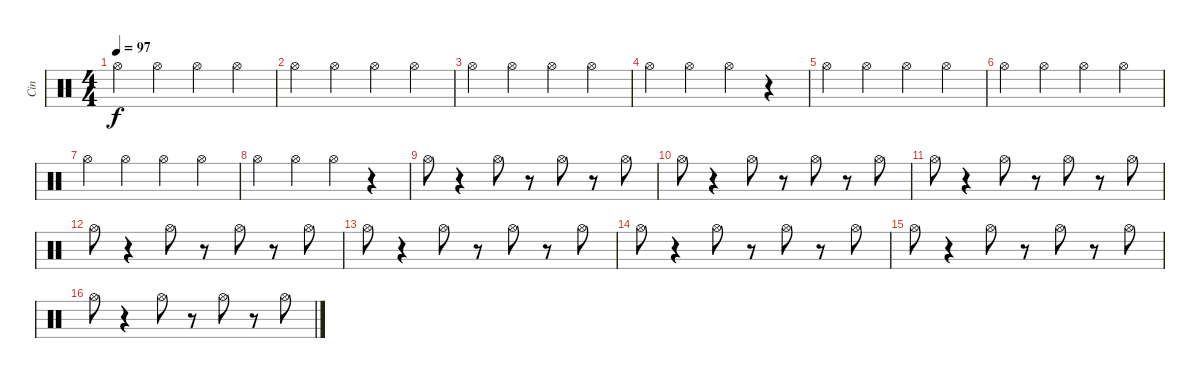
\track ("Cin" "Cin") {instrument percussion}
\staff {score}
\articulation defaults
\ts (4 4)
\tempo 97
\clef neutral
\ks c "Hi-Hat (open)".4{dy f} "Hi-Hat (open)".4 "Hi-Hat (open)".4 "Hi-Hat (open)".4
|
"Hi-Hat (open)".4 "Hi-Hat (open)".4 "Hi-Hat (open)".4 "Hi-Hat (open)".4 |
"Hi-Hat (open)".4 "Hi-Hat (open)".4 "Hi-Hat (open)".4 "Hi-Hat (open)".4 |
"Hi-Hat (open)".4 "Hi-Hat (open)".4 "Hi-Hat (open)".4 r.4 |
"Hi-Hat (open)".4 "Hi-Hat (open)".4 "Hi-Hat (open)".4 "Hi-Hat (open)".4 |
"Hi-Hat (open)".4 "Hi-Hat (open)".4 "Hi-Hat (open)".4 "Hi-Hat (open)".4 |
"Hi-Hat (open)".4 "Hi-Hat (open)".4 "Hi-Hat (open)".4 "Hi-Hat (open)".4 |
"Hi-Hat (open)".4 "Hi-Hat (open)".4 "Hi-Hat (open)".4 r.4 |
"Hi-Hat (open)".8 r.4 "Hi-Hat (open)".8 r.8 "Hi-Hat (open)".8 r.8 "Hi-Hat (open)".8 |
"Hi-Hat (open)".8 r.4 "Hi-Hat (open)".8 r.8 "Hi-Hat (open)".8 r.8 "Hi-Hat (open)".8 |
"Hi-Hat (open)".8 r.4 "Hi-Hat (open)".8 r.8 "Hi-Hat (open)".8 r.8 "Hi-Hat (open)".8 |
"Hi-Hat (open)".8 r.4 "Hi-Hat (open)".8 r.8 "Hi-Hat (open)".8 r.8 "Hi-Hat (open)".8 |
"Hi-Hat (open)".8 r.4 "Hi-Hat (open)".8 r.8 "Hi-Hat (open)".8 r.8 "Hi-Hat (open)".8 |
"Hi-Hat (open)".8 r.4 "Hi-Hat (open)".8 r.8 "Hi-Hat (open)".8 r.8 "Hi-Hat (open)".8 |
"Hi-Hat (open)".8 r.4 "Hi-Hat (open)".8 r.8 "Hi-Hat (open)".8 r.8 "Hi-Hat (open)".8 |
"Hi-Hat (open)".8 r.4 "Hi-Hat (open)".8 r.8 "Hi-Hat (open)".8 r.8 "Hi-Hat (open)".8
